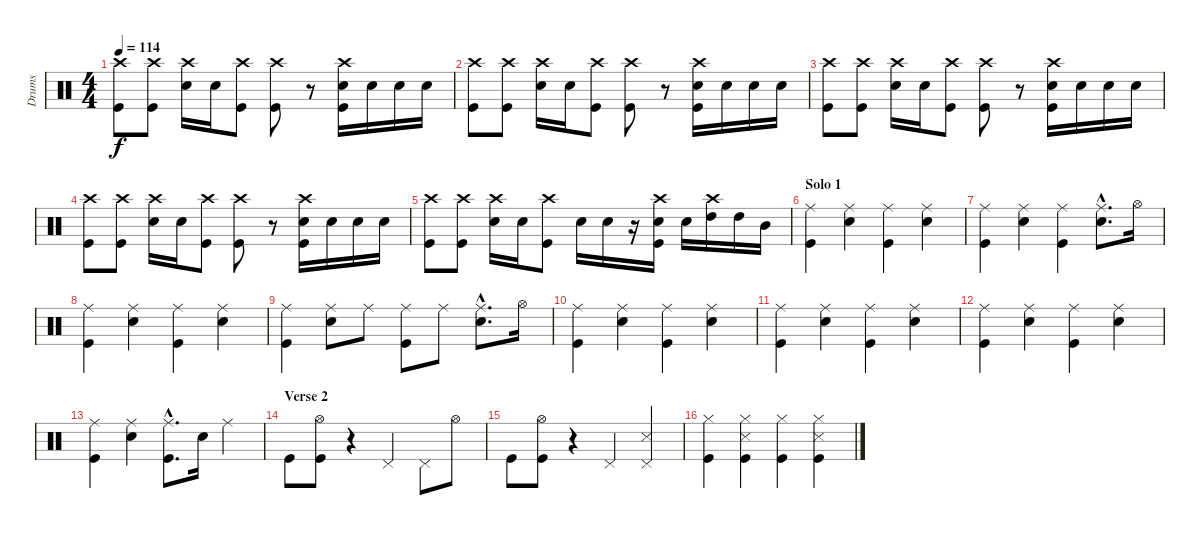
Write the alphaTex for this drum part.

\track ("Drums" "Drums") {instrument percussion}
\staff {score}
\articulation defaults
\ts (4 4)
\tempo 114
\clef neutral
\ks c
("Crash high (hit)" "Kick (hit)").8{dy f} ("Crash high (hit)" "Kick (hit)").8 ("Crash high (hit)" "Electric Snare (hit)").16 "Electric Snare (hit)".16 ("Crash high (hit)" "Kick (hit)").8 ("Crash high (hit)" "Kick (hit)").8 r.8 ("Crash high (hit)" "Electric Snare (hit)" "Kick (hit)").16 "Electric Snare (hit)".16 "Electric Snare (hit)".16 "Electric Snare (hit)".16 |
("Crash high (hit)" "Kick (hit)").8 ("Crash high (hit)" "Kick (hit)").8 ("Crash high (hit)" "Electric Snare (hit)").16 "Electric Snare (hit)".16 ("Crash high (hit)" "Kick (hit)").8 ("Crash high (hit)" "Kick (hit)").8 r.8 ("Crash high (hit)" "Electric Snare (hit)" "Kick (hit)").16 "Electric Snare (hit)".16 "Electric Snare (hit)".16 "Electric Snare (hit)".16 |
("Crash high (hit)" "Kick (hit)").8 ("Crash high (hit)" "Kick (hit)").8 ("Crash high (hit)" "Electric Snare (hit)").16 "Electric Snare (hit)".16 ("Crash high (hit)" "Kick (hit)").8 ("Crash high (hit)" "Kick (hit)").8 r.8 ("Crash high (hit)" "Electric Snare (hit)" "Kick (hit)").16 "Electric Snare (hit)".16 "Electric Snare (hit)".16 "Electric Snare (hit)".16 |
("Crash high (hit)" "Kick (hit)").8 ("Crash high (hit)" "Kick (hit)").8 ("Crash high (hit)" "Electric Snare (hit)").16 "Electric Snare (hit)".16 ("Crash high (hit)" "Kick (hit)").8 ("Crash high (hit)" "Kick (hit)").8 r.8 ("Crash high (hit)" "Electric Snare (hit)" "Kick (hit)").16 "Electric Snare (hit)".16 "Electric Snare (hit)".16 "Electric Snare (hit)".16 |
("Crash high (hit)" "Kick (hit)").8 ("Crash high (hit)" "Kick (hit)").8 ("Crash high (hit)" "Electric Snare (hit)").16 "Electric Snare (hit)".16 ("Crash high (hit)" "Kick (hit)").8 "Electric Snare (hit)".16 "Electric Snare (hit)".16 r.16 ("Crash high (hit)" "Electric Snare (hit)" "Kick (hit)").16 "Electric Snare (hit)".16 ("Crash high (hit)" "High Tom (hit)").16 "High Tom (hit)".16 "Mid Tom (hit)".16 |
\section ("" "Solo 1")
("Ride (middle)" "Kick (hit)").4 ("Ride (middle)" "Electric Snare (hit)").4 ("Ride (middle)" "Kick (hit)").4 ("Ride (middle)" "Electric Snare (hit)").4 |
("Ride (middle)" "Kick (hit)").4 ("Ride (middle)" "Electric Snare (hit)").4 ("Ride (middle)" "Kick (hit)").4 ("Ride (middle)"{hac} "Electric Snare (hit)"{hac}).8{d} "Hi-Hat (open)".16 |
("Ride (middle)" "Kick (hit)").4 ("Ride (middle)" "Electric Snare (hit)").4 ("Ride (middle)" "Kick (hit)").4 ("Ride (middle)" "Electric Snare (hit)").4 |
("Ride (middle)" "Kick (hit)").4 ("Ride (middle)" "Electric Snare (hit)").8 "Ride (middle)".8 ("Ride (middle)" "Kick (hit)").8 "Ride (middle)".8 ("Ride (middle)"{hac} "Electric Snare (hit)"{hac}).8{d} "Hi-Hat (open)".16 |
("Ride (middle)" "Kick (hit)").4 ("Ride (middle)" "Electric Snare (hit)").4 ("Ride (middle)" "Kick (hit)").4 ("Ride (middle)" "Electric Snare (hit)").4 |
("Ride (middle)" "Kick (hit)").4 ("Ride (middle)" "Electric Snare (hit)").4 ("Ride (middle)" "Kick (hit)").4 ("Ride (middle)" "Electric Snare (hit)").4 |
("Ride (middle)" "Kick (hit)").4 ("Ride (middle)" "Electric Snare (hit)").4 ("Ride (middle)" "Kick (hit)").4 ("Ride (middle)" "Electric Snare (hit)").4 |
("Ride (middle)" "Kick (hit)").4 ("Ride (middle)" "Electric Snare (hit)").4 ("Ride (middle)"{hac} "Kick (hit)"{hac}).8{d} "Electric Snare (hit)".16 "Ride (middle)".4 |
\section ("" "Verse 2")
"Kick (hit)".8 ("Hi-Hat (open)" "Kick (hit)").8 r.4 "Pedal Hi-Hat (hit)".4 "Pedal Hi-Hat (hit)".8 "Hi-Hat (open)".8 |
"Kick (hit)".8 ("Hi-Hat (open)" "Kick (hit)").8 r.4 "Pedal Hi-Hat (hit)".4 ("Pedal Hi-Hat (hit)" "Snare (side stick) 3").4 |
("Hi-Hat (closed)" "Kick (hit)").4 ("Hi-Hat (closed)" "Snare (side stick) 3" "Kick (hit)").4 ("Hi-Hat (closed)" "Kick (hit)").4 ("Hi-Hat (closed)" "Snare (side stick) 3" "Kick (hit)").4
